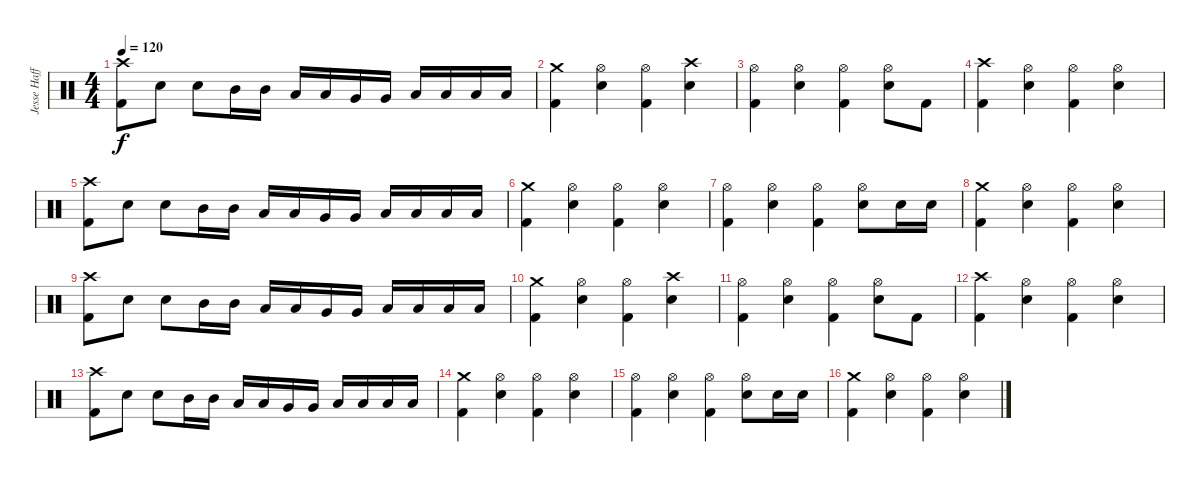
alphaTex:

\track ("Jesse Haff" "Jesse Haff") {instrument percussion}
\staff {score}
\articulation defaults
\ts (4 4)
\tempo 120
\clef neutral
\ks c
("Crash high (hit)" "Kick (hit) 2").8{dy f} "Electric Snare (hit)".8 "Electric Snare (hit)".8 "Mid Tom (hit)".16 "Mid Tom (hit)".16 "Low Tom (hit)".16 "Low Tom (hit)".16 "Very Low Tom (hit)".16 "Very Low Tom (hit)".16 "Low Floor Tom (hit)".16 "Low Floor Tom (hit)".16 "Low Floor Tom (hit)".16 "Low Floor Tom (hit)".16 |
("Crash medium (hit)" "Kick (hit) 2").4 ("Hi-Hat (open)" "Electric Snare (hit)").4 ("Hi-Hat (open)" "Kick (hit) 2").4 ("Crash high (hit)" "Electric Snare (hit)").4 |
("Hi-Hat (open)" "Kick (hit) 2").4 ("Hi-Hat (open)" "Electric Snare (hit)").4 ("Hi-Hat (open)" "Kick (hit) 2").4 ("Hi-Hat (open)" "Electric Snare (hit)").8 "Kick (hit) 2".8 |
("Crash high (hit)" "Kick (hit) 2").4 ("Hi-Hat (open)" "Electric Snare (hit)").4 ("Hi-Hat (open)" "Kick (hit) 2").4 ("Hi-Hat (open)" "Electric Snare (hit)").4 |
("Crash high (hit)" "Kick (hit) 2").8 "Electric Snare (hit)".8 "Electric Snare (hit)".8 "Mid Tom (hit)".16 "Mid Tom (hit)".16 "Low Tom (hit)".16 "Low Tom (hit)".16 "Very Low Tom (hit)".16 "Very Low Tom (hit)".16 "Low Floor Tom (hit)".16 "Low Floor Tom (hit)".16 "Low Floor Tom (hit)".16 "Low Floor Tom (hit)".16 |
("Crash medium (hit)" "Kick (hit) 2").4 ("Hi-Hat (open)" "Electric Snare (hit)").4 ("Hi-Hat (open)" "Kick (hit) 2").4 ("Hi-Hat (open)" "Electric Snare (hit)").4 |
("Hi-Hat (open)" "Kick (hit) 2").4 ("Hi-Hat (open)" "Electric Snare (hit)").4 ("Hi-Hat (open)" "Kick (hit) 2").4 ("Hi-Hat (open)" "Electric Snare (hit)").8 "Electric Snare (hit)".16 "Electric Snare (hit)".16 |
("Crash medium (hit)" "Kick (hit) 2").4 ("Hi-Hat (open)" "Electric Snare (hit)").4 ("Hi-Hat (open)" "Kick (hit) 2").4 ("Hi-Hat (open)" "Electric Snare (hit)").4 |
("Crash high (hit)" "Kick (hit) 2").8 "Electric Snare (hit)".8 "Electric Snare (hit)".8 "Mid Tom (hit)".16 "Mid Tom (hit)".16 "Low Tom (hit)".16 "Low Tom (hit)".16 "Very Low Tom (hit)".16 "Very Low Tom (hit)".16 "Low Floor Tom (hit)".16 "Low Floor Tom (hit)".16 "Low Floor Tom (hit)".16 "Low Floor Tom (hit)".16 |
("Crash medium (hit)" "Kick (hit) 2").4 ("Hi-Hat (open)" "Electric Snare (hit)").4 ("Hi-Hat (open)" "Kick (hit) 2").4 ("Crash high (hit)" "Electric Snare (hit)").4 |
("Hi-Hat (open)" "Kick (hit) 2").4 ("Hi-Hat (open)" "Electric Snare (hit)").4 ("Hi-Hat (open)" "Kick (hit) 2").4 ("Hi-Hat (open)" "Electric Snare (hit)").8 "Kick (hit) 2".8 |
("Crash high (hit)" "Kick (hit) 2").4 ("Hi-Hat (open)" "Electric Snare (hit)").4 ("Hi-Hat (open)" "Kick (hit) 2").4 ("Hi-Hat (open)" "Electric Snare (hit)").4 |
("Crash high (hit)" "Kick (hit) 2").8 "Electric Snare (hit)".8 "Electric Snare (hit)".8 "Mid Tom (hit)".16 "Mid Tom (hit)".16 "Low Tom (hit)".16 "Low Tom (hit)".16 "Very Low Tom (hit)".16 "Very Low Tom (hit)".16 "Low Floor Tom (hit)".16 "Low Floor Tom (hit)".16 "Low Floor Tom (hit)".16 "Low Floor Tom (hit)".16 |
("Crash medium (hit)" "Kick (hit) 2").4 ("Hi-Hat (open)" "Electric Snare (hit)").4 ("Hi-Hat (open)" "Kick (hit) 2").4 ("Hi-Hat (open)" "Electric Snare (hit)").4 |
("Hi-Hat (open)" "Kick (hit) 2").4 ("Hi-Hat (open)" "Electric Snare (hit)").4 ("Hi-Hat (open)" "Kick (hit) 2").4 ("Hi-Hat (open)" "Electric Snare (hit)").8 "Electric Snare (hit)".16 "Electric Snare (hit)".16 |
("Crash medium (hit)" "Kick (hit) 2").4 ("Hi-Hat (open)" "Electric Snare (hit)").4 ("Hi-Hat (open)" "Kick (hit) 2").4 ("Hi-Hat (open)" "Electric Snare (hit)").4
